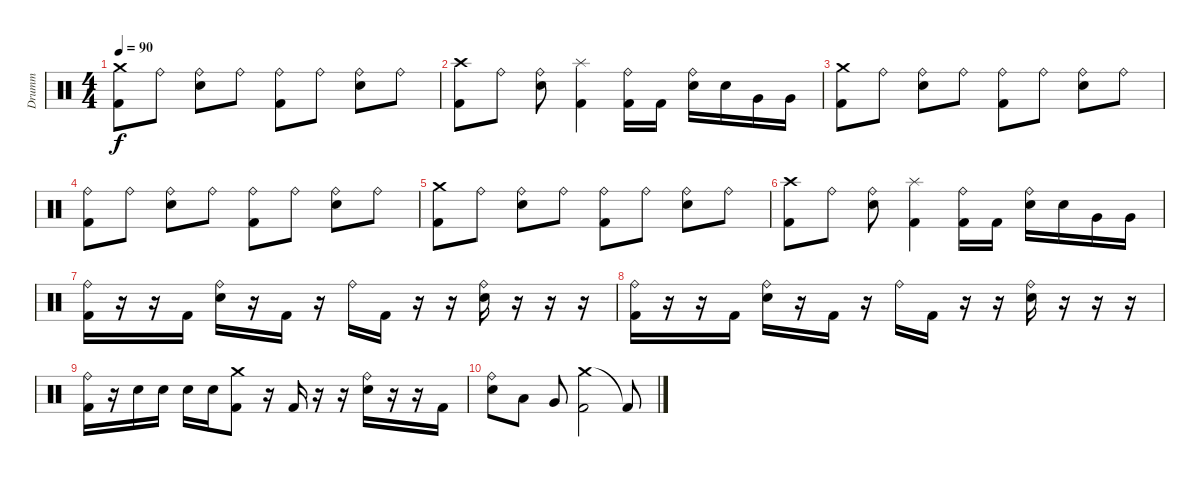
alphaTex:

\track ("Drumm" "Drumm") {instrument percussion}
\staff {score}
\articulation defaults
\ts (4 4)
\tempo 90
\clef neutral
\ks c
("Crash medium (hit)" "Kick (hit) 2").8{dy f} "Ride (bell)".8 ("Ride (bell)" "Snare (hit) 2").8 "Ride (bell)".8 ("Ride (bell)" "Kick (hit) 2").8 "Ride (bell)".8 ("Ride (bell)" "Snare (hit) 2").8 "Ride (bell)".8 |
("Crash high (hit)" "Kick (hit) 2").8 "Ride (bell)".8 ("Ride (bell)" "Snare (hit) 2").8 ("Splash (hit)" "Kick (hit) 2").4 ("Ride (bell)" "Kick (hit) 2").16 "Kick (hit) 2".16 ("Ride (bell)" "Snare (hit) 2").16 "Snare (hit) 2".16 "Very Low Tom (hit)".16 "Very Low Tom (hit)".16 |
("Crash medium (hit)" "Kick (hit) 2").8 "Ride (bell)".8 ("Ride (bell)" "Snare (hit) 2").8 "Ride (bell)".8 ("Ride (bell)" "Kick (hit) 2").8 "Ride (bell)".8 ("Ride (bell)" "Snare (hit) 2").8 "Ride (bell)".8 |
("Ride (bell)" "Kick (hit) 2").8 "Ride (bell)".8 ("Ride (bell)" "Snare (hit) 2").8 "Ride (bell)".8 ("Ride (bell)" "Kick (hit) 2").8 "Ride (bell)".8 ("Ride (bell)" "Snare (hit) 2").8 "Ride (bell)".8 |
("Crash medium (hit)" "Kick (hit) 2").8 "Ride (bell)".8 ("Ride (bell)" "Snare (hit) 2").8 "Ride (bell)".8 ("Ride (bell)" "Kick (hit) 2").8 "Ride (bell)".8 ("Ride (bell)" "Snare (hit) 2").8 "Ride (bell)".8 |
("Crash high (hit)" "Kick (hit) 2").8 "Ride (bell)".8 ("Ride (bell)" "Snare (hit) 2").8 ("Splash (hit)" "Kick (hit) 2").4 ("Ride (bell)" "Kick (hit) 2").16 "Kick (hit) 2".16 ("Ride (bell)" "Snare (hit) 2").16 "Snare (hit) 2".16 "Very Low Tom (hit)".16 "Very Low Tom (hit)".16 |
("Ride (bell)" "Kick (hit) 2").16 r.16 r.16 "Kick (hit) 2".16 ("Ride (bell)" "Snare (hit) 2").16 r.16 "Kick (hit) 2".16 r.16 "Ride (bell)".16 "Kick (hit) 2".16 r.16 r.16 ("Ride (bell)" "Snare (hit) 2").16 r.16 r.16 r.16 |
("Ride (bell)" "Kick (hit) 2").16 r.16 r.16 "Kick (hit) 2".16 ("Ride (bell)" "Snare (hit) 2").16 r.16 "Kick (hit) 2".16 r.16 "Ride (bell)".16 "Kick (hit) 2".16 r.16 r.16 ("Ride (bell)" "Snare (hit) 2").16 r.16 r.16 r.16 |
("Ride (bell)" "Kick (hit) 2").16 r.16 "Snare (hit) 2".16 "Snare (hit) 2".16 "Snare (hit) 2".16 "Snare (hit) 2".16 ("Crash medium (hit)" "Kick (hit) 2").8 r.16 "Kick (hit) 2".16 r.16 r.16 ("Ride (bell)" "Snare (hit) 2").16 r.16 r.16 "Kick (hit) 2".16 |
("Ride (bell)" "Snare (hit) 2").8 "Low Tom (hit)".8 "Very Low Tom (hit)".8 ("Crash medium (hit)" "Kick (hit) 2").2 "Kick (hit) 2"{t}.8
